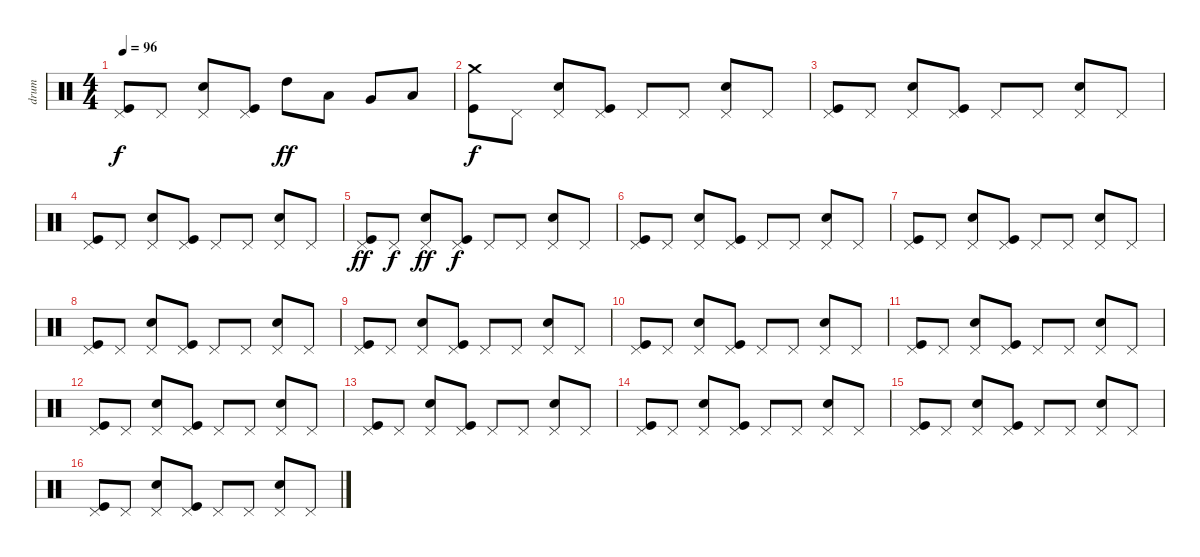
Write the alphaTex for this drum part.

\track ("drum" "drum") {instrument percussion}
\staff {score}
\articulation defaults
\ts (4 4)
\tempo 96
\clef neutral
\ks c
("Pedal Hi-Hat (hit)" "Kick (hit)").8{dy f} "Pedal Hi-Hat (hit)".8 ("Pedal Hi-Hat (hit)" "Electric Snare (hit)").8 ("Pedal Hi-Hat (hit)" "Kick (hit)").8 "High Tom (hit)".8{dy ff} "Low Tom (hit)".8 "Very Low Tom (hit)".8 "Low Floor Tom (hit)".8 |
("Crash medium (hit)" "Kick (hit)").8{dy f} "Pedal Hi-Hat (hit)".8 ("Pedal Hi-Hat (hit)" "Electric Snare (hit)").8 ("Pedal Hi-Hat (hit)" "Kick (hit)").8 "Pedal Hi-Hat (hit)".8 "Pedal Hi-Hat (hit)".8 ("Pedal Hi-Hat (hit)" "Electric Snare (hit)").8 "Pedal Hi-Hat (hit)".8 |
("Pedal Hi-Hat (hit)" "Kick (hit)").8 "Pedal Hi-Hat (hit)".8 ("Pedal Hi-Hat (hit)" "Electric Snare (hit)").8 ("Pedal Hi-Hat (hit)" "Kick (hit)").8 "Pedal Hi-Hat (hit)".8 "Pedal Hi-Hat (hit)".8 ("Pedal Hi-Hat (hit)" "Electric Snare (hit)").8 "Pedal Hi-Hat (hit)".8 |
("Pedal Hi-Hat (hit)" "Kick (hit)").8 "Pedal Hi-Hat (hit)".8 ("Pedal Hi-Hat (hit)" "Electric Snare (hit)").8 ("Pedal Hi-Hat (hit)" "Kick (hit)").8 "Pedal Hi-Hat (hit)".8 "Pedal Hi-Hat (hit)".8 ("Pedal Hi-Hat (hit)" "Electric Snare (hit)").8 "Pedal Hi-Hat (hit)".8 |
("Pedal Hi-Hat (hit)" "Kick (hit)").8{dy ff} "Pedal Hi-Hat (hit)".8{dy f} ("Pedal Hi-Hat (hit)" "Electric Snare (hit)").8{dy ff} ("Pedal Hi-Hat (hit)" "Kick (hit)").8{dy f} "Pedal Hi-Hat (hit)".8 "Pedal Hi-Hat (hit)".8 ("Pedal Hi-Hat (hit)" "Electric Snare (hit)").8 "Pedal Hi-Hat (hit)".8 |
("Pedal Hi-Hat (hit)" "Kick (hit)").8 "Pedal Hi-Hat (hit)".8 ("Pedal Hi-Hat (hit)" "Electric Snare (hit)").8 ("Pedal Hi-Hat (hit)" "Kick (hit)").8 "Pedal Hi-Hat (hit)".8 "Pedal Hi-Hat (hit)".8 ("Pedal Hi-Hat (hit)" "Electric Snare (hit)").8 "Pedal Hi-Hat (hit)".8 |
("Pedal Hi-Hat (hit)" "Kick (hit)").8 "Pedal Hi-Hat (hit)".8 ("Pedal Hi-Hat (hit)" "Electric Snare (hit)").8 ("Pedal Hi-Hat (hit)" "Kick (hit)").8 "Pedal Hi-Hat (hit)".8 "Pedal Hi-Hat (hit)".8 ("Pedal Hi-Hat (hit)" "Electric Snare (hit)").8 "Pedal Hi-Hat (hit)".8 |
("Pedal Hi-Hat (hit)" "Kick (hit)").8 "Pedal Hi-Hat (hit)".8 ("Pedal Hi-Hat (hit)" "Electric Snare (hit)").8 ("Pedal Hi-Hat (hit)" "Kick (hit)").8 "Pedal Hi-Hat (hit)".8 "Pedal Hi-Hat (hit)".8 ("Pedal Hi-Hat (hit)" "Electric Snare (hit)").8 "Pedal Hi-Hat (hit)".8 |
("Pedal Hi-Hat (hit)" "Kick (hit)").8 "Pedal Hi-Hat (hit)".8 ("Pedal Hi-Hat (hit)" "Electric Snare (hit)").8 ("Pedal Hi-Hat (hit)" "Kick (hit)").8 "Pedal Hi-Hat (hit)".8 "Pedal Hi-Hat (hit)".8 ("Pedal Hi-Hat (hit)" "Electric Snare (hit)").8 "Pedal Hi-Hat (hit)".8 |
("Pedal Hi-Hat (hit)" "Kick (hit)").8 "Pedal Hi-Hat (hit)".8 ("Pedal Hi-Hat (hit)" "Electric Snare (hit)").8 ("Pedal Hi-Hat (hit)" "Kick (hit)").8 "Pedal Hi-Hat (hit)".8 "Pedal Hi-Hat (hit)".8 ("Pedal Hi-Hat (hit)" "Electric Snare (hit)").8 "Pedal Hi-Hat (hit)".8 |
("Pedal Hi-Hat (hit)" "Kick (hit)").8 "Pedal Hi-Hat (hit)".8 ("Pedal Hi-Hat (hit)" "Electric Snare (hit)").8 ("Pedal Hi-Hat (hit)" "Kick (hit)").8 "Pedal Hi-Hat (hit)".8 "Pedal Hi-Hat (hit)".8 ("Pedal Hi-Hat (hit)" "Electric Snare (hit)").8 "Pedal Hi-Hat (hit)".8 |
("Pedal Hi-Hat (hit)" "Kick (hit)").8 "Pedal Hi-Hat (hit)".8 ("Pedal Hi-Hat (hit)" "Electric Snare (hit)").8 ("Pedal Hi-Hat (hit)" "Kick (hit)").8 "Pedal Hi-Hat (hit)".8 "Pedal Hi-Hat (hit)".8 ("Pedal Hi-Hat (hit)" "Electric Snare (hit)").8 "Pedal Hi-Hat (hit)".8 |
("Pedal Hi-Hat (hit)" "Kick (hit)").8 "Pedal Hi-Hat (hit)".8 ("Pedal Hi-Hat (hit)" "Electric Snare (hit)").8 ("Pedal Hi-Hat (hit)" "Kick (hit)").8 "Pedal Hi-Hat (hit)".8 "Pedal Hi-Hat (hit)".8 ("Pedal Hi-Hat (hit)" "Electric Snare (hit)").8 "Pedal Hi-Hat (hit)".8 |
("Pedal Hi-Hat (hit)" "Kick (hit)").8 "Pedal Hi-Hat (hit)".8 ("Pedal Hi-Hat (hit)" "Electric Snare (hit)").8 ("Pedal Hi-Hat (hit)" "Kick (hit)").8 "Pedal Hi-Hat (hit)".8 "Pedal Hi-Hat (hit)".8 ("Pedal Hi-Hat (hit)" "Electric Snare (hit)").8 "Pedal Hi-Hat (hit)".8 |
("Pedal Hi-Hat (hit)" "Kick (hit)").8 "Pedal Hi-Hat (hit)".8 ("Pedal Hi-Hat (hit)" "Electric Snare (hit)").8 ("Pedal Hi-Hat (hit)" "Kick (hit)").8 "Pedal Hi-Hat (hit)".8 "Pedal Hi-Hat (hit)".8 ("Pedal Hi-Hat (hit)" "Electric Snare (hit)").8 "Pedal Hi-Hat (hit)".8 |
("Pedal Hi-Hat (hit)" "Kick (hit)").8 "Pedal Hi-Hat (hit)".8 ("Pedal Hi-Hat (hit)" "Electric Snare (hit)").8 ("Pedal Hi-Hat (hit)" "Kick (hit)").8 "Pedal Hi-Hat (hit)".8 "Pedal Hi-Hat (hit)".8 ("Pedal Hi-Hat (hit)" "Electric Snare (hit)").8 "Pedal Hi-Hat (hit)".8
